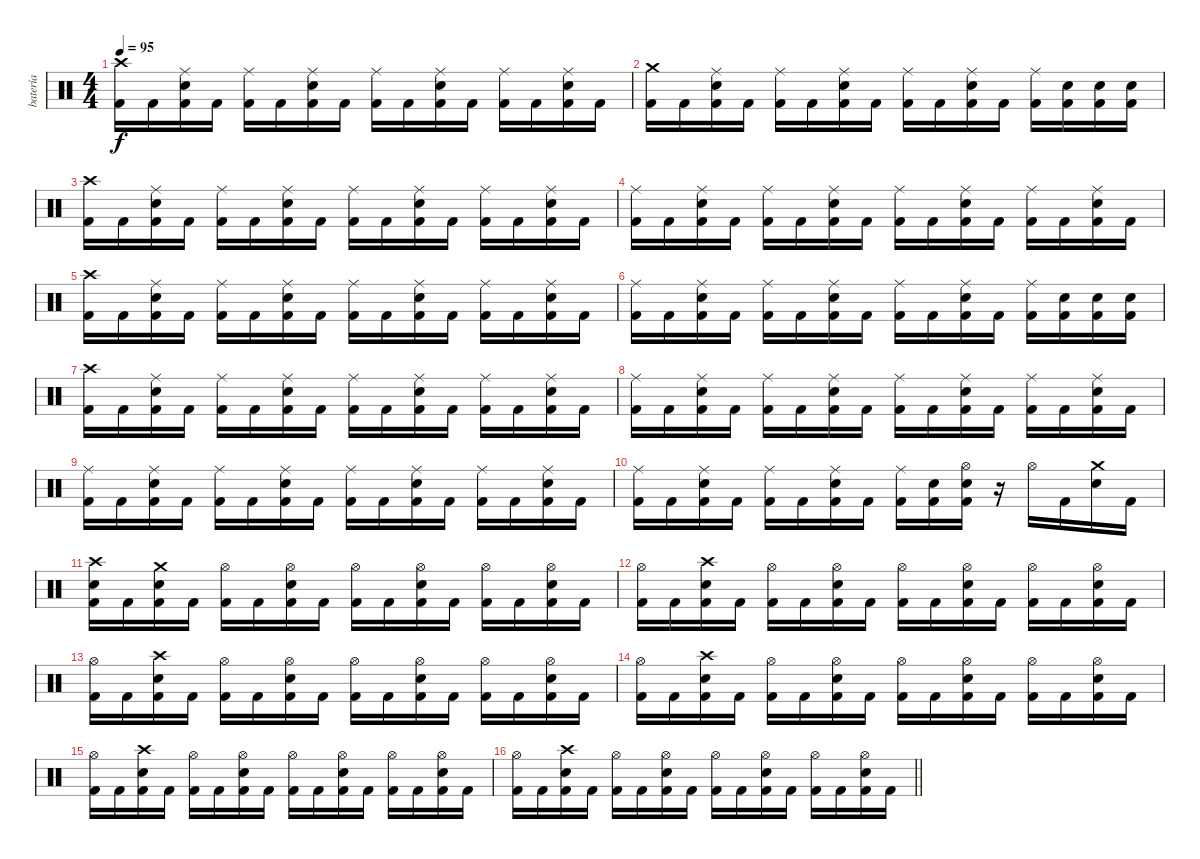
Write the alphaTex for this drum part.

\track ("batería" "batería") {instrument percussion}
\staff {score}
\articulation defaults
\ts (4 4)
\tempo 95
\clef neutral
\ks c
("Crash high (hit)" "Kick (hit) 2").16{dy f} "Kick (hit) 2".16 ("Ride (middle)" "Electric Snare (hit)" "Kick (hit) 2").16 "Kick (hit) 2".16 ("Ride (middle)" "Kick (hit) 2").16 "Kick (hit) 2".16 ("Ride (middle)" "Electric Snare (hit)" "Kick (hit) 2").16 "Kick (hit) 2".16 ("Ride (middle)" "Kick (hit) 2").16 "Kick (hit) 2".16 ("Ride (middle)" "Electric Snare (hit)" "Kick (hit) 2").16 "Kick (hit) 2".16 ("Ride (middle)" "Kick (hit) 2").16 "Kick (hit) 2".16 ("Ride (middle)" "Electric Snare (hit)" "Kick (hit) 2").16 "Kick (hit) 2".16 |
("Crash medium (hit)" "Kick (hit) 2").16 "Kick (hit) 2".16 ("Ride (middle)" "Electric Snare (hit)" "Kick (hit) 2").16 "Kick (hit) 2".16 ("Ride (middle)" "Kick (hit) 2").16 "Kick (hit) 2".16 ("Ride (middle)" "Electric Snare (hit)" "Kick (hit) 2").16 "Kick (hit) 2".16 ("Ride (middle)" "Kick (hit) 2").16 "Kick (hit) 2".16 ("Ride (middle)" "Electric Snare (hit)" "Kick (hit) 2").16 "Kick (hit) 2".16 ("Ride (middle)" "Kick (hit) 2").16 ("Electric Snare (hit)" "Kick (hit) 2").16 ("Electric Snare (hit)" "Kick (hit) 2").16 ("Electric Snare (hit)" "Kick (hit) 2").16 |
("Crash high (hit)" "Kick (hit) 2").16 "Kick (hit) 2".16 ("Ride (middle)" "Electric Snare (hit)" "Kick (hit) 2").16 "Kick (hit) 2".16 ("Ride (middle)" "Kick (hit) 2").16 "Kick (hit) 2".16 ("Ride (middle)" "Electric Snare (hit)" "Kick (hit) 2").16 "Kick (hit) 2".16 ("Ride (middle)" "Kick (hit) 2").16 "Kick (hit) 2".16 ("Ride (middle)" "Electric Snare (hit)" "Kick (hit) 2").16 "Kick (hit) 2".16 ("Ride (middle)" "Kick (hit) 2").16 "Kick (hit) 2".16 ("Ride (middle)" "Electric Snare (hit)" "Kick (hit) 2").16 "Kick (hit) 2".16 |
("Ride (middle)" "Kick (hit) 2").16 "Kick (hit) 2".16 ("Ride (middle)" "Electric Snare (hit)" "Kick (hit) 2").16 "Kick (hit) 2".16 ("Ride (middle)" "Kick (hit) 2").16 "Kick (hit) 2".16 ("Ride (middle)" "Electric Snare (hit)" "Kick (hit) 2").16 "Kick (hit) 2".16 ("Ride (middle)" "Kick (hit) 2").16 "Kick (hit) 2".16 ("Ride (middle)" "Electric Snare (hit)" "Kick (hit) 2").16 "Kick (hit) 2".16 ("Ride (middle)" "Kick (hit) 2").16 "Kick (hit) 2".16 ("Ride (middle)" "Electric Snare (hit)" "Kick (hit) 2").16 "Kick (hit) 2".16 |
("Crash high (hit)" "Kick (hit) 2").16 "Kick (hit) 2".16 ("Ride (middle)" "Electric Snare (hit)" "Kick (hit) 2").16 "Kick (hit) 2".16 ("Ride (middle)" "Kick (hit) 2").16 "Kick (hit) 2".16 ("Ride (middle)" "Electric Snare (hit)" "Kick (hit) 2").16 "Kick (hit) 2".16 ("Ride (middle)" "Kick (hit) 2").16 "Kick (hit) 2".16 ("Ride (middle)" "Electric Snare (hit)" "Kick (hit) 2").16 "Kick (hit) 2".16 ("Ride (middle)" "Kick (hit) 2").16 "Kick (hit) 2".16 ("Ride (middle)" "Electric Snare (hit)" "Kick (hit) 2").16 "Kick (hit) 2".16 |
("Ride (middle)" "Kick (hit) 2").16 "Kick (hit) 2".16 ("Ride (middle)" "Electric Snare (hit)" "Kick (hit) 2").16 "Kick (hit) 2".16 ("Ride (middle)" "Kick (hit) 2").16 "Kick (hit) 2".16 ("Ride (middle)" "Electric Snare (hit)" "Kick (hit) 2").16 "Kick (hit) 2".16 ("Ride (middle)" "Kick (hit) 2").16 "Kick (hit) 2".16 ("Ride (middle)" "Electric Snare (hit)" "Kick (hit) 2").16 "Kick (hit) 2".16 ("Ride (middle)" "Kick (hit) 2").16 ("Electric Snare (hit)" "Kick (hit) 2").16 ("Electric Snare (hit)" "Kick (hit) 2").16 ("Electric Snare (hit)" "Kick (hit) 2").16 |
("Crash high (hit)" "Kick (hit) 2").16 "Kick (hit) 2".16 ("Ride (middle)" "Electric Snare (hit)" "Kick (hit) 2").16 "Kick (hit) 2".16 ("Ride (middle)" "Kick (hit) 2").16 "Kick (hit) 2".16 ("Ride (middle)" "Electric Snare (hit)" "Kick (hit) 2").16 "Kick (hit) 2".16 ("Ride (middle)" "Kick (hit) 2").16 "Kick (hit) 2".16 ("Ride (middle)" "Electric Snare (hit)" "Kick (hit) 2").16 "Kick (hit) 2".16 ("Ride (middle)" "Kick (hit) 2").16 "Kick (hit) 2".16 ("Ride (middle)" "Electric Snare (hit)" "Kick (hit) 2").16 "Kick (hit) 2".16 |
("Ride (middle)" "Kick (hit) 2").16 "Kick (hit) 2".16 ("Ride (middle)" "Electric Snare (hit)" "Kick (hit) 2").16 "Kick (hit) 2".16 ("Ride (middle)" "Kick (hit) 2").16 "Kick (hit) 2".16 ("Ride (middle)" "Electric Snare (hit)" "Kick (hit) 2").16 "Kick (hit) 2".16 ("Ride (middle)" "Kick (hit) 2").16 "Kick (hit) 2".16 ("Ride (middle)" "Electric Snare (hit)" "Kick (hit) 2").16 "Kick (hit) 2".16 ("Ride (middle)" "Kick (hit) 2").16 "Kick (hit) 2".16 ("Ride (middle)" "Electric Snare (hit)" "Kick (hit) 2").16 "Kick (hit) 2".16 |
("Ride (middle)" "Kick (hit) 2").16 "Kick (hit) 2".16 ("Ride (middle)" "Electric Snare (hit)" "Kick (hit) 2").16 "Kick (hit) 2".16 ("Ride (middle)" "Kick (hit) 2").16 "Kick (hit) 2".16 ("Ride (middle)" "Electric Snare (hit)" "Kick (hit) 2").16 "Kick (hit) 2".16 ("Ride (middle)" "Kick (hit) 2").16 "Kick (hit) 2".16 ("Ride (middle)" "Electric Snare (hit)" "Kick (hit) 2").16 "Kick (hit) 2".16 ("Ride (middle)" "Kick (hit) 2").16 "Kick (hit) 2".16 ("Ride (middle)" "Electric Snare (hit)" "Kick (hit) 2").16 "Kick (hit) 2".16 |
("Ride (middle)" "Kick (hit) 2").16 "Kick (hit) 2".16 ("Ride (middle)" "Electric Snare (hit)" "Kick (hit) 2").16 "Kick (hit) 2".16 ("Ride (middle)" "Kick (hit) 2").16 "Kick (hit) 2".16 ("Ride (middle)" "Electric Snare (hit)" "Kick (hit) 2").16 "Kick (hit) 2".16 ("Ride (middle)" "Kick (hit) 2").16 ("Electric Snare (hit)" "Kick (hit) 2").16 ("Hi-Hat (open)" "Electric Snare (hit)" "Kick (hit) 2").16 r.16 "Hi-Hat (open)".16 "Kick (hit) 2".16 ("Crash medium (hit)" "Electric Snare (hit)").16 "Kick (hit) 2".16 |
("Crash high (hit)" "Electric Snare (hit)" "Kick (hit) 2").16 "Kick (hit) 2".16 ("Crash medium (hit)" "Electric Snare (hit)" "Kick (hit) 2").16 "Kick (hit) 2".16 ("Hi-Hat (open)" "Kick (hit) 2").16 "Kick (hit) 2".16 ("Hi-Hat (open)" "Electric Snare (hit)" "Kick (hit) 2").16 "Kick (hit) 2".16 ("Hi-Hat (open)" "Kick (hit) 2").16 "Kick (hit) 2".16 ("Hi-Hat (open)" "Electric Snare (hit)" "Kick (hit) 2").16 "Kick (hit) 2".16 ("Hi-Hat (open)" "Kick (hit) 2").16 "Kick (hit) 2".16 ("Hi-Hat (open)" "Electric Snare (hit)" "Kick (hit) 2").16 "Kick (hit) 2".16 |
("Hi-Hat (open)" "Kick (hit) 2").16 "Kick (hit) 2".16 ("Crash high (hit)" "Electric Snare (hit)" "Kick (hit) 2").16 "Kick (hit) 2".16 ("Hi-Hat (open)" "Kick (hit) 2").16 "Kick (hit) 2".16 ("Hi-Hat (open)" "Electric Snare (hit)" "Kick (hit) 2").16 "Kick (hit) 2".16 ("Hi-Hat (open)" "Kick (hit) 2").16 "Kick (hit) 2".16 ("Hi-Hat (open)" "Electric Snare (hit)" "Kick (hit) 2").16 "Kick (hit) 2".16 ("Hi-Hat (open)" "Kick (hit) 2").16 "Kick (hit) 2".16 ("Hi-Hat (open)" "Electric Snare (hit)" "Kick (hit) 2").16 "Kick (hit) 2".16 |
("Hi-Hat (open)" "Kick (hit) 2").16 "Kick (hit) 2".16 ("Crash high (hit)" "Electric Snare (hit)" "Kick (hit) 2").16 "Kick (hit) 2".16 ("Hi-Hat (open)" "Kick (hit) 2").16 "Kick (hit) 2".16 ("Hi-Hat (open)" "Electric Snare (hit)" "Kick (hit) 2").16 "Kick (hit) 2".16 ("Hi-Hat (open)" "Kick (hit) 2").16 "Kick (hit) 2".16 ("Hi-Hat (open)" "Electric Snare (hit)" "Kick (hit) 2").16 "Kick (hit) 2".16 ("Hi-Hat (open)" "Kick (hit) 2").16 "Kick (hit) 2".16 ("Hi-Hat (open)" "Electric Snare (hit)" "Kick (hit) 2").16 "Kick (hit) 2".16 |
("Hi-Hat (open)" "Kick (hit) 2").16 "Kick (hit) 2".16 ("Crash high (hit)" "Electric Snare (hit)" "Kick (hit) 2").16 "Kick (hit) 2".16 ("Hi-Hat (open)" "Kick (hit) 2").16 "Kick (hit) 2".16 ("Hi-Hat (open)" "Electric Snare (hit)" "Kick (hit) 2").16 "Kick (hit) 2".16 ("Hi-Hat (open)" "Kick (hit) 2").16 "Kick (hit) 2".16 ("Hi-Hat (open)" "Electric Snare (hit)" "Kick (hit) 2").16 "Kick (hit) 2".16 ("Hi-Hat (open)" "Kick (hit) 2").16 "Kick (hit) 2".16 ("Hi-Hat (open)" "Electric Snare (hit)" "Kick (hit) 2").16 "Kick (hit) 2".16 |
("Hi-Hat (open)" "Kick (hit) 2").16 "Kick (hit) 2".16 ("Crash high (hit)" "Electric Snare (hit)" "Kick (hit) 2").16 "Kick (hit) 2".16 ("Hi-Hat (open)" "Kick (hit) 2").16 "Kick (hit) 2".16 ("Hi-Hat (open)" "Electric Snare (hit)" "Kick (hit) 2").16 "Kick (hit) 2".16 ("Hi-Hat (open)" "Kick (hit) 2").16 "Kick (hit) 2".16 ("Hi-Hat (open)" "Electric Snare (hit)" "Kick (hit) 2").16 "Kick (hit) 2".16 ("Hi-Hat (open)" "Kick (hit) 2").16 "Kick (hit) 2".16 ("Hi-Hat (open)" "Electric Snare (hit)" "Kick (hit) 2").16 "Kick (hit) 2".16 |
\barLineRight lightlight
("Hi-Hat (open)" "Kick (hit) 2").16 "Kick (hit) 2".16 ("Crash high (hit)" "Electric Snare (hit)" "Kick (hit) 2").16 "Kick (hit) 2".16 ("Hi-Hat (open)" "Kick (hit) 2").16 "Kick (hit) 2".16 ("Hi-Hat (open)" "Electric Snare (hit)" "Kick (hit) 2").16 "Kick (hit) 2".16 ("Hi-Hat (open)" "Kick (hit) 2").16 "Kick (hit) 2".16 ("Hi-Hat (open)" "Electric Snare (hit)" "Kick (hit) 2").16 "Kick (hit) 2".16 ("Hi-Hat (open)" "Kick (hit) 2").16 "Kick (hit) 2".16 ("Hi-Hat (open)" "Electric Snare (hit)" "Kick (hit) 2").16 "Kick (hit) 2".16
